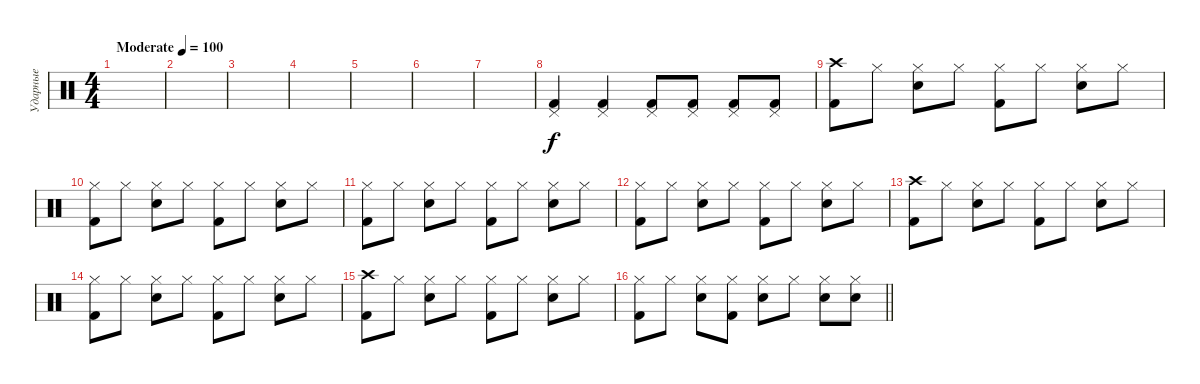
\track ("Ударные" "Ударные") {instrument percussion}
\staff {score}
\articulation defaults
\ts (4 4)
\tempo (100 "Moderate")
\clef neutral
\ks c
|
|
|
|
|
|
|
("Pedal Hi-Hat (hit)" "Kick (hit) 2").4 ("Pedal Hi-Hat (hit)" "Kick (hit) 2").4 ("Pedal Hi-Hat (hit)" "Kick (hit) 2").8 ("Pedal Hi-Hat (hit)" "Kick (hit) 2").8 ("Pedal Hi-Hat (hit)" "Kick (hit) 2").8 ("Pedal Hi-Hat (hit)" "Kick (hit) 2").8 |
("Crash high (hit)" "Kick (hit) 2").8 "Hi-Hat (closed)".8 ("Hi-Hat (closed)" "Electric Snare (hit)").8 "Hi-Hat (closed)".8 ("Hi-Hat (closed)" "Kick (hit) 2").8 "Hi-Hat (closed)".8 ("Hi-Hat (closed)" "Electric Snare (hit)").8 "Hi-Hat (closed)".8 |
("Hi-Hat (closed)" "Kick (hit) 2").8 "Hi-Hat (closed)".8 ("Hi-Hat (closed)" "Electric Snare (hit)").8 "Hi-Hat (closed)".8 ("Hi-Hat (closed)" "Kick (hit) 2").8 "Hi-Hat (closed)".8 ("Hi-Hat (closed)" "Electric Snare (hit)").8 "Hi-Hat (closed)".8 |
("Hi-Hat (closed)" "Kick (hit) 2").8 "Hi-Hat (closed)".8 ("Hi-Hat (closed)" "Electric Snare (hit)").8 "Hi-Hat (closed)".8 ("Hi-Hat (closed)" "Kick (hit) 2").8 "Hi-Hat (closed)".8 ("Hi-Hat (closed)" "Electric Snare (hit)").8 "Hi-Hat (closed)".8 |
("Hi-Hat (closed)" "Kick (hit) 2").8 "Hi-Hat (closed)".8 ("Hi-Hat (closed)" "Electric Snare (hit)").8 "Hi-Hat (closed)".8 ("Hi-Hat (closed)" "Kick (hit) 2").8 "Hi-Hat (closed)".8 ("Hi-Hat (closed)" "Electric Snare (hit)").8 "Hi-Hat (closed)".8 |
("Crash high (hit)" "Kick (hit) 2").8 "Hi-Hat (closed)".8 ("Hi-Hat (closed)" "Electric Snare (hit)").8 "Hi-Hat (closed)".8 ("Hi-Hat (closed)" "Kick (hit) 2").8 "Hi-Hat (closed)".8 ("Hi-Hat (closed)" "Electric Snare (hit)").8 "Hi-Hat (closed)".8 |
("Hi-Hat (closed)" "Kick (hit) 2").8 "Hi-Hat (closed)".8 ("Hi-Hat (closed)" "Electric Snare (hit)").8 "Hi-Hat (closed)".8 ("Hi-Hat (closed)" "Kick (hit) 2").8 "Hi-Hat (closed)".8 ("Hi-Hat (closed)" "Electric Snare (hit)").8 "Hi-Hat (closed)".8 |
("Crash high (hit)" "Kick (hit) 2").8 "Hi-Hat (closed)".8 ("Hi-Hat (closed)" "Electric Snare (hit)").8 "Hi-Hat (closed)".8 ("Hi-Hat (closed)" "Kick (hit) 2").8 "Hi-Hat (closed)".8 ("Hi-Hat (closed)" "Electric Snare (hit)").8 "Hi-Hat (closed)".8 |
\barLineRight lightlight
("Hi-Hat (closed)" "Kick (hit) 2").8 "Hi-Hat (closed)".8 ("Hi-Hat (closed)" "Electric Snare (hit)").8 ("Hi-Hat (closed)" "Kick (hit) 2").8 ("Hi-Hat (closed)" "Electric Snare (hit)").8 "Hi-Hat (closed)".8 ("Hi-Hat (closed)" "Electric Snare (hit)").8 ("Hi-Hat (closed)" "Electric Snare (hit)").8
